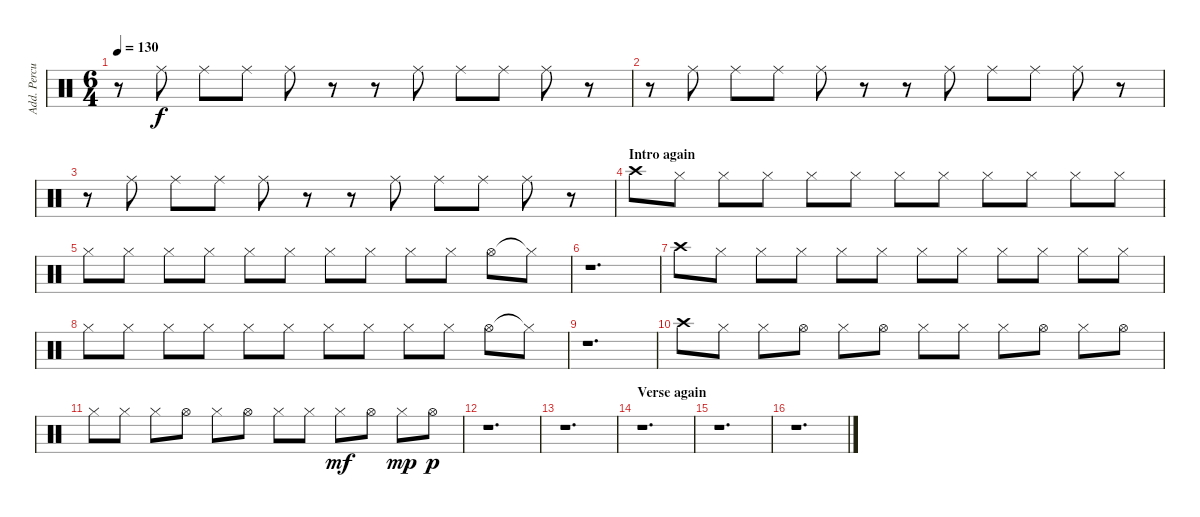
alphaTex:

\track ("Add. Percussion" "Add. Percu") {instrument percussion}
\staff {score}
\articulation defaults
\ts (6 4)
\tempo 130
\clef neutral
\ks c
r.8{dy f} "Ride (middle)".8 "Ride (middle)".8 "Ride (middle)".8 "Ride (middle)".8 r.8 r.8 "Ride (middle)".8 "Ride (middle)".8 "Ride (middle)".8 "Ride (middle)".8 r.8 |
r.8 "Ride (middle)".8 "Ride (middle)".8 "Ride (middle)".8 "Ride (middle)".8 r.8 r.8 "Ride (middle)".8 "Ride (middle)".8 "Ride (middle)".8 "Ride (middle)".8 r.8 |
r.8 "Ride (middle)".8 "Ride (middle)".8 "Ride (middle)".8 "Ride (middle)".8 r.8 r.8 "Ride (middle)".8 "Ride (middle)".8 "Ride (middle)".8 "Ride (middle)".8 r.8 |
\section ("" "Intro again")
"Crash high (hit)".8 "Hi-Hat (closed)".8 "Hi-Hat (closed)".8 "Hi-Hat (closed)".8 "Hi-Hat (closed)".8 "Hi-Hat (closed)".8 "Hi-Hat (closed)".8 "Hi-Hat (closed)".8 "Hi-Hat (closed)".8 "Hi-Hat (closed)".8 "Hi-Hat (closed)".8 "Hi-Hat (closed)".8 |
"Hi-Hat (closed)".8 "Hi-Hat (closed)".8 "Hi-Hat (closed)".8 "Hi-Hat (closed)".8 "Hi-Hat (closed)".8 "Hi-Hat (closed)".8 "Hi-Hat (closed)".8 "Hi-Hat (closed)".8 "Hi-Hat (closed)".8 "Hi-Hat (closed)".8 "Hi-Hat (open)".8 "Hi-Hat (closed)"{t}.8 |
r.1{d} |
"Crash high (hit)".8 "Hi-Hat (closed)".8 "Hi-Hat (closed)".8 "Hi-Hat (closed)".8 "Hi-Hat (closed)".8 "Hi-Hat (closed)".8 "Hi-Hat (closed)".8 "Hi-Hat (closed)".8 "Hi-Hat (closed)".8 "Hi-Hat (closed)".8 "Hi-Hat (closed)".8 "Hi-Hat (closed)".8 |
"Hi-Hat (closed)".8 "Hi-Hat (closed)".8 "Hi-Hat (closed)".8 "Hi-Hat (closed)".8 "Hi-Hat (closed)".8 "Hi-Hat (closed)".8 "Hi-Hat (closed)".8 "Hi-Hat (closed)".8 "Hi-Hat (closed)".8 "Hi-Hat (closed)".8 "Hi-Hat (open)".8 "Hi-Hat (closed)"{t}.8 |
r.1{d} |
"Crash high (hit)".8 "Hi-Hat (closed)".8 "Hi-Hat (closed)".8 "Hi-Hat (open)".8 "Hi-Hat (closed)".8 "Hi-Hat (open)".8 "Hi-Hat (closed)".8 "Hi-Hat (closed)".8 "Hi-Hat (closed)".8 "Hi-Hat (open)".8 "Hi-Hat (closed)".8 "Hi-Hat (open)".8 |
"Hi-Hat (closed)".8 "Hi-Hat (closed)".8 "Hi-Hat (closed)".8 "Hi-Hat (open)".8 "Hi-Hat (closed)".8 "Hi-Hat (open)".8 "Hi-Hat (closed)".8 "Hi-Hat (closed)".8 "Hi-Hat (closed)".8{dy mf} "Hi-Hat (open)".8 "Hi-Hat (closed)".8{dy mp} "Hi-Hat (open)".8{dy p} |
r.1{d} |
r.1{d} |
\section ("" "Verse again")
r.1{d} |
r.1{d} |
r.1{d}
